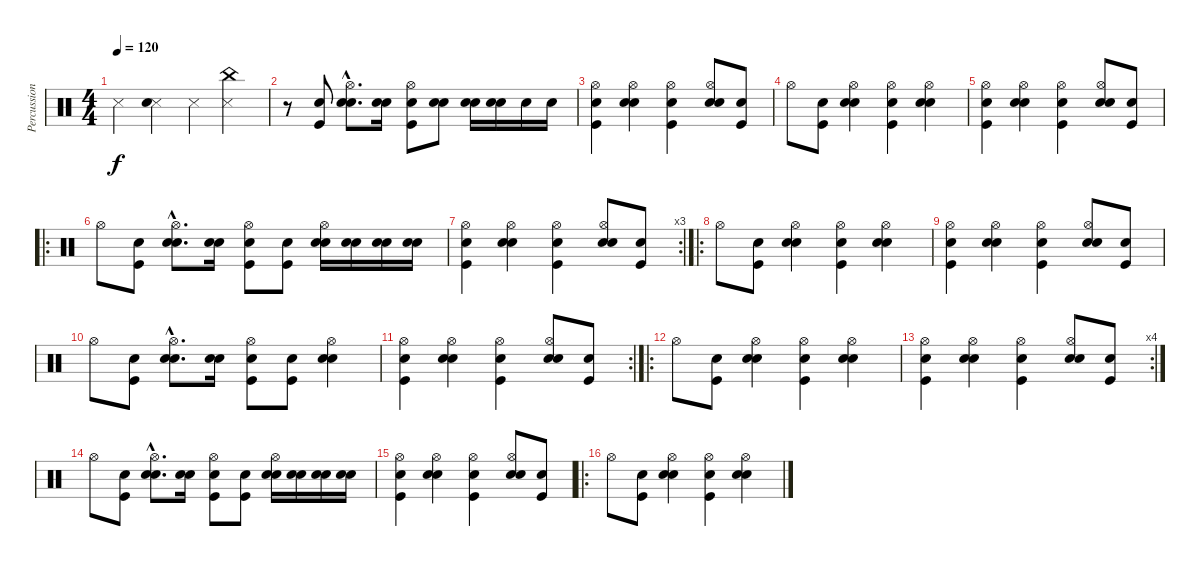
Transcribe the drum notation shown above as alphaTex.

\track ("Percussion" "Percussion") {instrument percussion}
\staff {score}
\articulation defaults
\ts (4 4)
\tempo 120
\clef neutral
\ks c "Snare (side stick) 3".4{dy f}
("Snare (side stick) 3" "Snare (hit) 2").4 "Snare (side stick) 3".4 ("Snare (side stick) 3" "China (hit)").4 |
r.8 ("Snare (hit) 2" "Kick (hit)").8 ("Hi-Hat (open)"{hac} "Snare (hit) 2"{hac} "Electric Snare (hit)"{hac}).8{d} ("Snare (hit) 2" "Electric Snare (hit)").16 ("Hi-Hat (open)" "Snare (hit) 2" "Kick (hit)").8 ("Snare (hit) 2" "Electric Snare (hit)").8 ("Snare (hit) 2" "Electric Snare (hit)").16 ("Snare (hit) 2" "Electric Snare (hit)").16 "Snare (hit) 2".16 "Snare (hit) 2".16 |
("Hi-Hat (open)" "Snare (hit) 2" "Kick (hit)").4 ("Hi-Hat (open)" "Snare (hit) 2" "Electric Snare (hit)").4 ("Hi-Hat (open)" "Snare (hit) 2" "Kick (hit)").4 ("Hi-Hat (open)" "Snare (hit) 2" "Electric Snare (hit)").8 ("Snare (hit) 2" "Kick (hit)").8 |
"Hi-Hat (open)".8 ("Snare (hit) 2" "Kick (hit)").8 ("Hi-Hat (open)" "Snare (hit) 2" "Electric Snare (hit)").4 ("Hi-Hat (open)" "Snare (hit) 2" "Kick (hit)").4 ("Hi-Hat (open)" "Snare (hit) 2" "Electric Snare (hit)").4 |
("Hi-Hat (open)" "Snare (hit) 2" "Kick (hit)").4 ("Hi-Hat (open)" "Snare (hit) 2" "Electric Snare (hit)").4 ("Hi-Hat (open)" "Snare (hit) 2" "Kick (hit)").4 ("Hi-Hat (open)" "Snare (hit) 2" "Electric Snare (hit)").8 ("Snare (hit) 2" "Kick (hit)").8 |
\ro "Hi-Hat (open)".8
("Snare (hit) 2" "Kick (hit)").8 ("Hi-Hat (open)"{hac} "Snare (hit) 2"{hac} "Electric Snare (hit)"{hac}).8{d} ("Snare (hit) 2" "Electric Snare (hit)").16 ("Hi-Hat (open)" "Snare (hit) 2" "Kick (hit)").8 ("Snare (hit) 2" "Kick (hit)").8 ("Hi-Hat (open)" "Snare (hit) 2" "Electric Snare (hit)").16 ("Snare (hit) 2" "Electric Snare (hit)").16 ("Snare (hit) 2" "Electric Snare (hit)").16 ("Snare (hit) 2" "Electric Snare (hit)").16 |
\rc 3
("Hi-Hat (open)" "Snare (hit) 2" "Kick (hit)").4 ("Hi-Hat (open)" "Snare (hit) 2" "Electric Snare (hit)").4 ("Hi-Hat (open)" "Snare (hit) 2" "Kick (hit)").4 ("Hi-Hat (open)" "Snare (hit) 2" "Electric Snare (hit)").8 ("Snare (hit) 2" "Kick (hit)").8 |
\ro "Hi-Hat (open)".8
("Snare (hit) 2" "Kick (hit)").8 ("Hi-Hat (open)" "Snare (hit) 2" "Electric Snare (hit)").4 ("Hi-Hat (open)" "Snare (hit) 2" "Kick (hit)").4 ("Hi-Hat (open)" "Snare (hit) 2" "Electric Snare (hit)").4 |
("Hi-Hat (open)" "Snare (hit) 2" "Kick (hit)").4 ("Hi-Hat (open)" "Snare (hit) 2" "Electric Snare (hit)").4 ("Hi-Hat (open)" "Snare (hit) 2" "Kick (hit)").4 ("Hi-Hat (open)" "Snare (hit) 2" "Electric Snare (hit)").8 ("Snare (hit) 2" "Kick (hit)").8 |
"Hi-Hat (open)".8 ("Snare (hit) 2" "Kick (hit)").8 ("Hi-Hat (open)"{hac} "Snare (hit) 2"{hac} "Electric Snare (hit)"{hac}).8{d} ("Snare (hit) 2" "Electric Snare (hit)").16 ("Hi-Hat (open)" "Snare (hit) 2" "Kick (hit)").8 ("Snare (hit) 2" "Kick (hit)").8 ("Hi-Hat (open)" "Snare (hit) 2" "Electric Snare (hit)").4 |
\rc 2
("Hi-Hat (open)" "Snare (hit) 2" "Kick (hit)").4 ("Hi-Hat (open)" "Snare (hit) 2" "Electric Snare (hit)").4 ("Hi-Hat (open)" "Snare (hit) 2" "Kick (hit)").4 ("Hi-Hat (open)" "Snare (hit) 2" "Electric Snare (hit)").8 ("Snare (hit) 2" "Kick (hit)").8 |
\ro "Hi-Hat (open)".8
("Snare (hit) 2" "Kick (hit)").8 ("Hi-Hat (open)" "Snare (hit) 2" "Electric Snare (hit)").4 ("Hi-Hat (open)" "Snare (hit) 2" "Kick (hit)").4 ("Hi-Hat (open)" "Snare (hit) 2" "Electric Snare (hit)").4 |
\rc 4
("Hi-Hat (open)" "Snare (hit) 2" "Kick (hit)").4 ("Hi-Hat (open)" "Snare (hit) 2" "Electric Snare (hit)").4 ("Hi-Hat (open)" "Snare (hit) 2" "Kick (hit)").4 ("Hi-Hat (open)" "Snare (hit) 2" "Electric Snare (hit)").8 ("Snare (hit) 2" "Kick (hit)").8 |
"Hi-Hat (open)".8 ("Snare (hit) 2" "Kick (hit)").8 ("Hi-Hat (open)"{hac} "Snare (hit) 2"{hac} "Electric Snare (hit)"{hac}).8{d} ("Snare (hit) 2" "Electric Snare (hit)").16 ("Hi-Hat (open)" "Snare (hit) 2" "Kick (hit)").8 ("Snare (hit) 2" "Kick (hit)").8 ("Hi-Hat (open)" "Snare (hit) 2" "Electric Snare (hit)").16 ("Snare (hit) 2" "Electric Snare (hit)").16 ("Snare (hit) 2" "Electric Snare (hit)").16 ("Snare (hit) 2" "Electric Snare (hit)").16 |
("Hi-Hat (open)" "Snare (hit) 2" "Kick (hit)").4 ("Hi-Hat (open)" "Snare (hit) 2" "Electric Snare (hit)").4 ("Hi-Hat (open)" "Snare (hit) 2" "Kick (hit)").4 ("Hi-Hat (open)" "Snare (hit) 2" "Electric Snare (hit)").8 ("Snare (hit) 2" "Kick (hit)").8 |
\ro "Hi-Hat (open)".8
("Snare (hit) 2" "Kick (hit)").8 ("Hi-Hat (open)" "Snare (hit) 2" "Electric Snare (hit)").4 ("Hi-Hat (open)" "Snare (hit) 2" "Kick (hit)").4 ("Hi-Hat (open)" "Snare (hit) 2" "Electric Snare (hit)").4
